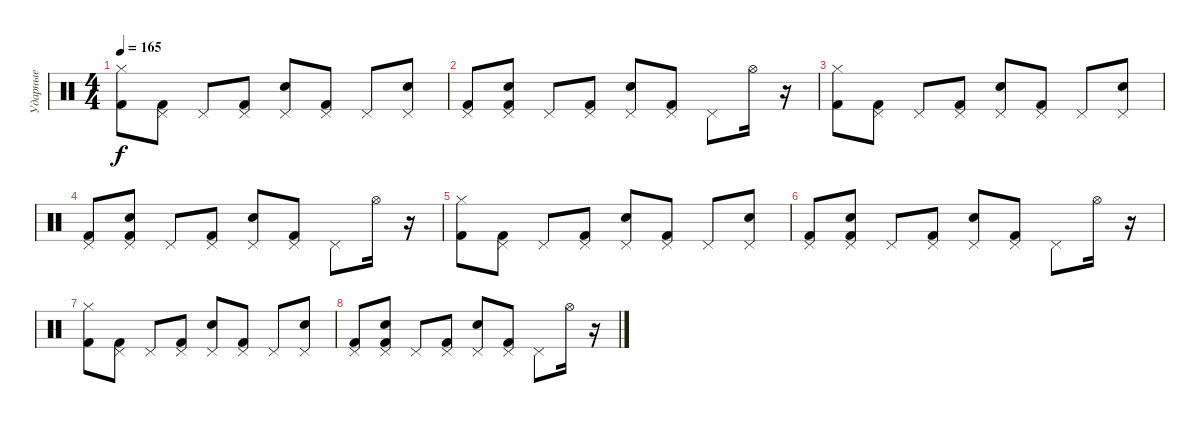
\track ("Ударные" "Ударные") {instrument percussion}
\staff {score}
\articulation defaults
\ts (4 4)
\tempo 165
\clef neutral
\ks c
("Hi-Hat (closed)" "Kick (hit) 2").8{dy f} ("Pedal Hi-Hat (hit)" "Kick (hit) 2").8 "Pedal Hi-Hat (hit)".8 ("Pedal Hi-Hat (hit)" "Kick (hit) 2").8 ("Pedal Hi-Hat (hit)" "Electric Snare (hit)").8 ("Pedal Hi-Hat (hit)" "Kick (hit) 2").8 "Pedal Hi-Hat (hit)".8 ("Pedal Hi-Hat (hit)" "Electric Snare (hit)").8 |
("Pedal Hi-Hat (hit)" "Kick (hit) 2").8 ("Pedal Hi-Hat (hit)" "Electric Snare (hit)" "Kick (hit) 2").8 "Pedal Hi-Hat (hit)".8 ("Pedal Hi-Hat (hit)" "Kick (hit) 2").8 ("Pedal Hi-Hat (hit)" "Electric Snare (hit)").8 ("Pedal Hi-Hat (hit)" "Kick (hit) 2").8 "Pedal Hi-Hat (hit)".8 "Hi-Hat (open)".16 r.16 |
("Hi-Hat (closed)" "Kick (hit) 2").8 ("Pedal Hi-Hat (hit)" "Kick (hit) 2").8 "Pedal Hi-Hat (hit)".8 ("Pedal Hi-Hat (hit)" "Kick (hit) 2").8 ("Pedal Hi-Hat (hit)" "Electric Snare (hit)").8 ("Pedal Hi-Hat (hit)" "Kick (hit) 2").8 "Pedal Hi-Hat (hit)".8 ("Pedal Hi-Hat (hit)" "Electric Snare (hit)").8 |
("Pedal Hi-Hat (hit)" "Kick (hit) 2").8 ("Pedal Hi-Hat (hit)" "Electric Snare (hit)" "Kick (hit) 2").8 "Pedal Hi-Hat (hit)".8 ("Pedal Hi-Hat (hit)" "Kick (hit) 2").8 ("Pedal Hi-Hat (hit)" "Electric Snare (hit)").8 ("Pedal Hi-Hat (hit)" "Kick (hit) 2").8 "Pedal Hi-Hat (hit)".8 "Hi-Hat (open)".16 r.16 |
("Hi-Hat (closed)" "Kick (hit) 2").8 ("Pedal Hi-Hat (hit)" "Kick (hit) 2").8 "Pedal Hi-Hat (hit)".8 ("Pedal Hi-Hat (hit)" "Kick (hit) 2").8 ("Pedal Hi-Hat (hit)" "Electric Snare (hit)").8 ("Pedal Hi-Hat (hit)" "Kick (hit) 2").8 "Pedal Hi-Hat (hit)".8 ("Pedal Hi-Hat (hit)" "Electric Snare (hit)").8 |
("Pedal Hi-Hat (hit)" "Kick (hit) 2").8 ("Pedal Hi-Hat (hit)" "Electric Snare (hit)" "Kick (hit) 2").8 "Pedal Hi-Hat (hit)".8 ("Pedal Hi-Hat (hit)" "Kick (hit) 2").8 ("Pedal Hi-Hat (hit)" "Electric Snare (hit)").8 ("Pedal Hi-Hat (hit)" "Kick (hit) 2").8 "Pedal Hi-Hat (hit)".8 "Hi-Hat (open)".16 r.16 |
("Hi-Hat (closed)" "Kick (hit) 2").8 ("Pedal Hi-Hat (hit)" "Kick (hit) 2").8 "Pedal Hi-Hat (hit)".8 ("Pedal Hi-Hat (hit)" "Kick (hit) 2").8 ("Pedal Hi-Hat (hit)" "Electric Snare (hit)").8 ("Pedal Hi-Hat (hit)" "Kick (hit) 2").8 "Pedal Hi-Hat (hit)".8 ("Pedal Hi-Hat (hit)" "Electric Snare (hit)").8 |
("Pedal Hi-Hat (hit)" "Kick (hit) 2").8 ("Pedal Hi-Hat (hit)" "Electric Snare (hit)" "Kick (hit) 2").8 "Pedal Hi-Hat (hit)".8 ("Pedal Hi-Hat (hit)" "Kick (hit) 2").8 ("Pedal Hi-Hat (hit)" "Electric Snare (hit)").8 ("Pedal Hi-Hat (hit)" "Kick (hit) 2").8 "Pedal Hi-Hat (hit)".8 "Hi-Hat (open)".16 r.16
